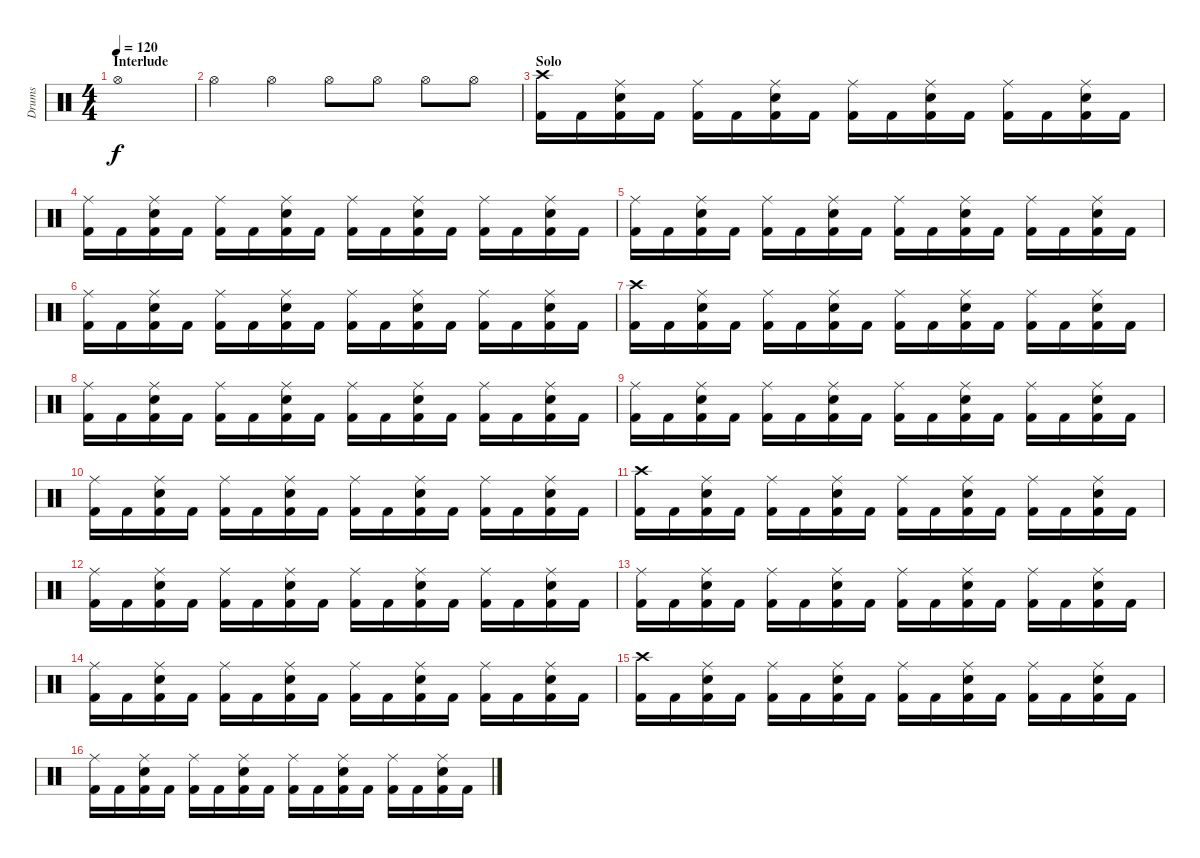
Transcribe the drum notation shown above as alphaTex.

\track ("Drums" "Drums") {instrument percussion}
\staff {score}
\articulation defaults
\ts (4 4)
\section ("" "Interlude")
\tempo 120
\clef neutral
\ks c "Hi-Hat (open)".1{dy f}
|
"Hi-Hat (open)".4 "Hi-Hat (open)".4 "Hi-Hat (open)".8 "Hi-Hat (open)".8 "Hi-Hat (open)".8 "Hi-Hat (open)".8 |
\section ("" "Solo")
("Crash high (hit)" "Kick (hit) 2").16 "Kick (hit) 2".16 ("Ride (middle)" "Snare (hit) 2" "Kick (hit) 2").16 "Kick (hit) 2".16 ("Ride (middle)" "Kick (hit) 2").16 "Kick (hit) 2".16 ("Ride (middle)" "Snare (hit) 2" "Kick (hit) 2").16 "Kick (hit) 2".16 ("Ride (middle)" "Kick (hit) 2").16 "Kick (hit) 2".16 ("Ride (middle)" "Snare (hit) 2" "Kick (hit) 2").16 "Kick (hit) 2".16 ("Ride (middle)" "Kick (hit) 2").16 "Kick (hit) 2".16 ("Ride (middle)" "Snare (hit) 2" "Kick (hit) 2").16 "Kick (hit) 2".16 |
("Ride (middle)" "Kick (hit) 2").16 "Kick (hit) 2".16 ("Ride (middle)" "Snare (hit) 2" "Kick (hit) 2").16 "Kick (hit) 2".16 ("Ride (middle)" "Kick (hit) 2").16 "Kick (hit) 2".16 ("Ride (middle)" "Snare (hit) 2" "Kick (hit) 2").16 "Kick (hit) 2".16 ("Ride (middle)" "Kick (hit) 2").16 "Kick (hit) 2".16 ("Ride (middle)" "Snare (hit) 2" "Kick (hit) 2").16 "Kick (hit) 2".16 ("Ride (middle)" "Kick (hit) 2").16 "Kick (hit) 2".16 ("Ride (middle)" "Snare (hit) 2" "Kick (hit) 2").16 "Kick (hit) 2".16 |
("Ride (middle)" "Kick (hit) 2").16 "Kick (hit) 2".16 ("Ride (middle)" "Snare (hit) 2" "Kick (hit) 2").16 "Kick (hit) 2".16 ("Ride (middle)" "Kick (hit) 2").16 "Kick (hit) 2".16 ("Ride (middle)" "Snare (hit) 2" "Kick (hit) 2").16 "Kick (hit) 2".16 ("Ride (middle)" "Kick (hit) 2").16 "Kick (hit) 2".16 ("Ride (middle)" "Snare (hit) 2" "Kick (hit) 2").16 "Kick (hit) 2".16 ("Ride (middle)" "Kick (hit) 2").16 "Kick (hit) 2".16 ("Ride (middle)" "Snare (hit) 2" "Kick (hit) 2").16 "Kick (hit) 2".16 |
("Ride (middle)" "Kick (hit) 2").16 "Kick (hit) 2".16 ("Ride (middle)" "Snare (hit) 2" "Kick (hit) 2").16 "Kick (hit) 2".16 ("Ride (middle)" "Kick (hit) 2").16 "Kick (hit) 2".16 ("Ride (middle)" "Snare (hit) 2" "Kick (hit) 2").16 "Kick (hit) 2".16 ("Ride (middle)" "Kick (hit) 2").16 "Kick (hit) 2".16 ("Ride (middle)" "Snare (hit) 2" "Kick (hit) 2").16 "Kick (hit) 2".16 ("Ride (middle)" "Kick (hit) 2").16 "Kick (hit) 2".16 ("Ride (middle)" "Snare (hit) 2" "Kick (hit) 2").16 "Kick (hit) 2".16 |
("Crash high (hit)" "Kick (hit) 2").16 "Kick (hit) 2".16 ("Ride (middle)" "Snare (hit) 2" "Kick (hit) 2").16 "Kick (hit) 2".16 ("Ride (middle)" "Kick (hit) 2").16 "Kick (hit) 2".16 ("Ride (middle)" "Snare (hit) 2" "Kick (hit) 2").16 "Kick (hit) 2".16 ("Ride (middle)" "Kick (hit) 2").16 "Kick (hit) 2".16 ("Ride (middle)" "Snare (hit) 2" "Kick (hit) 2").16 "Kick (hit) 2".16 ("Ride (middle)" "Kick (hit) 2").16 "Kick (hit) 2".16 ("Ride (middle)" "Snare (hit) 2" "Kick (hit) 2").16 "Kick (hit) 2".16 |
("Ride (middle)" "Kick (hit) 2").16 "Kick (hit) 2".16 ("Ride (middle)" "Snare (hit) 2" "Kick (hit) 2").16 "Kick (hit) 2".16 ("Ride (middle)" "Kick (hit) 2").16 "Kick (hit) 2".16 ("Ride (middle)" "Snare (hit) 2" "Kick (hit) 2").16 "Kick (hit) 2".16 ("Ride (middle)" "Kick (hit) 2").16 "Kick (hit) 2".16 ("Ride (middle)" "Snare (hit) 2" "Kick (hit) 2").16 "Kick (hit) 2".16 ("Ride (middle)" "Kick (hit) 2").16 "Kick (hit) 2".16 ("Ride (middle)" "Snare (hit) 2" "Kick (hit) 2").16 "Kick (hit) 2".16 |
("Ride (middle)" "Kick (hit) 2").16 "Kick (hit) 2".16 ("Ride (middle)" "Snare (hit) 2" "Kick (hit) 2").16 "Kick (hit) 2".16 ("Ride (middle)" "Kick (hit) 2").16 "Kick (hit) 2".16 ("Ride (middle)" "Snare (hit) 2" "Kick (hit) 2").16 "Kick (hit) 2".16 ("Ride (middle)" "Kick (hit) 2").16 "Kick (hit) 2".16 ("Ride (middle)" "Snare (hit) 2" "Kick (hit) 2").16 "Kick (hit) 2".16 ("Ride (middle)" "Kick (hit) 2").16 "Kick (hit) 2".16 ("Ride (middle)" "Snare (hit) 2" "Kick (hit) 2").16 "Kick (hit) 2".16 |
("Ride (middle)" "Kick (hit) 2").16 "Kick (hit) 2".16 ("Ride (middle)" "Snare (hit) 2" "Kick (hit) 2").16 "Kick (hit) 2".16 ("Ride (middle)" "Kick (hit) 2").16 "Kick (hit) 2".16 ("Ride (middle)" "Snare (hit) 2" "Kick (hit) 2").16 "Kick (hit) 2".16 ("Ride (middle)" "Kick (hit) 2").16 "Kick (hit) 2".16 ("Ride (middle)" "Snare (hit) 2" "Kick (hit) 2").16 "Kick (hit) 2".16 ("Ride (middle)" "Kick (hit) 2").16 "Kick (hit) 2".16 ("Ride (middle)" "Snare (hit) 2" "Kick (hit) 2").16 "Kick (hit) 2".16 |
("Crash high (hit)" "Kick (hit) 2").16 "Kick (hit) 2".16 ("Ride (middle)" "Snare (hit) 2" "Kick (hit) 2").16 "Kick (hit) 2".16 ("Ride (middle)" "Kick (hit) 2").16 "Kick (hit) 2".16 ("Ride (middle)" "Snare (hit) 2" "Kick (hit) 2").16 "Kick (hit) 2".16 ("Ride (middle)" "Kick (hit) 2").16 "Kick (hit) 2".16 ("Ride (middle)" "Snare (hit) 2" "Kick (hit) 2").16 "Kick (hit) 2".16 ("Ride (middle)" "Kick (hit) 2").16 "Kick (hit) 2".16 ("Ride (middle)" "Snare (hit) 2" "Kick (hit) 2").16 "Kick (hit) 2".16 |
("Ride (middle)" "Kick (hit) 2").16 "Kick (hit) 2".16 ("Ride (middle)" "Snare (hit) 2" "Kick (hit) 2").16 "Kick (hit) 2".16 ("Ride (middle)" "Kick (hit) 2").16 "Kick (hit) 2".16 ("Ride (middle)" "Snare (hit) 2" "Kick (hit) 2").16 "Kick (hit) 2".16 ("Ride (middle)" "Kick (hit) 2").16 "Kick (hit) 2".16 ("Ride (middle)" "Snare (hit) 2" "Kick (hit) 2").16 "Kick (hit) 2".16 ("Ride (middle)" "Kick (hit) 2").16 "Kick (hit) 2".16 ("Ride (middle)" "Snare (hit) 2" "Kick (hit) 2").16 "Kick (hit) 2".16 |
("Ride (middle)" "Kick (hit) 2").16 "Kick (hit) 2".16 ("Ride (middle)" "Snare (hit) 2" "Kick (hit) 2").16 "Kick (hit) 2".16 ("Ride (middle)" "Kick (hit) 2").16 "Kick (hit) 2".16 ("Ride (middle)" "Snare (hit) 2" "Kick (hit) 2").16 "Kick (hit) 2".16 ("Ride (middle)" "Kick (hit) 2").16 "Kick (hit) 2".16 ("Ride (middle)" "Snare (hit) 2" "Kick (hit) 2").16 "Kick (hit) 2".16 ("Ride (middle)" "Kick (hit) 2").16 "Kick (hit) 2".16 ("Ride (middle)" "Snare (hit) 2" "Kick (hit) 2").16 "Kick (hit) 2".16 |
("Ride (middle)" "Kick (hit) 2").16 "Kick (hit) 2".16 ("Ride (middle)" "Snare (hit) 2" "Kick (hit) 2").16 "Kick (hit) 2".16 ("Ride (middle)" "Kick (hit) 2").16 "Kick (hit) 2".16 ("Ride (middle)" "Snare (hit) 2" "Kick (hit) 2").16 "Kick (hit) 2".16 ("Ride (middle)" "Kick (hit) 2").16 "Kick (hit) 2".16 ("Ride (middle)" "Snare (hit) 2" "Kick (hit) 2").16 "Kick (hit) 2".16 ("Ride (middle)" "Kick (hit) 2").16 "Kick (hit) 2".16 ("Ride (middle)" "Snare (hit) 2" "Kick (hit) 2").16 "Kick (hit) 2".16 |
("Crash high (hit)" "Kick (hit) 2").16 "Kick (hit) 2".16 ("Ride (middle)" "Snare (hit) 2" "Kick (hit) 2").16 "Kick (hit) 2".16 ("Ride (middle)" "Kick (hit) 2").16 "Kick (hit) 2".16 ("Ride (middle)" "Snare (hit) 2" "Kick (hit) 2").16 "Kick (hit) 2".16 ("Ride (middle)" "Kick (hit) 2").16 "Kick (hit) 2".16 ("Ride (middle)" "Snare (hit) 2" "Kick (hit) 2").16 "Kick (hit) 2".16 ("Ride (middle)" "Kick (hit) 2").16 "Kick (hit) 2".16 ("Ride (middle)" "Snare (hit) 2" "Kick (hit) 2").16 "Kick (hit) 2".16 |
("Ride (middle)" "Kick (hit) 2").16 "Kick (hit) 2".16 ("Ride (middle)" "Snare (hit) 2" "Kick (hit) 2").16 "Kick (hit) 2".16 ("Ride (middle)" "Kick (hit) 2").16 "Kick (hit) 2".16 ("Ride (middle)" "Snare (hit) 2" "Kick (hit) 2").16 "Kick (hit) 2".16 ("Ride (middle)" "Kick (hit) 2").16 "Kick (hit) 2".16 ("Ride (middle)" "Snare (hit) 2" "Kick (hit) 2").16 "Kick (hit) 2".16 ("Ride (middle)" "Kick (hit) 2").16 "Kick (hit) 2".16 ("Ride (middle)" "Snare (hit) 2" "Kick (hit) 2").16 "Kick (hit) 2".16
